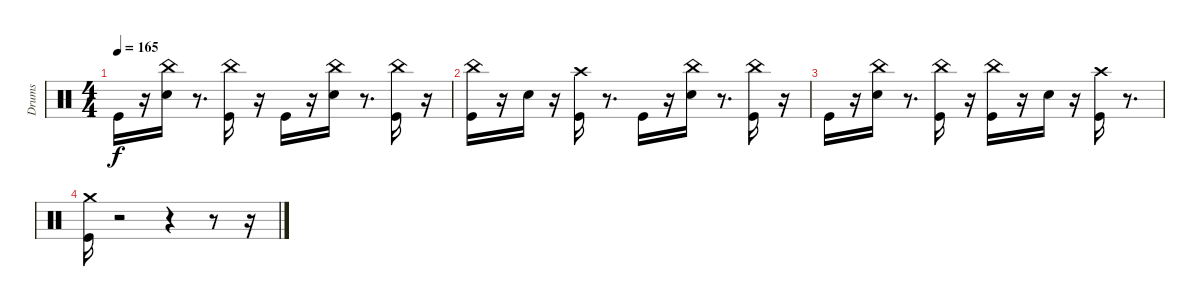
\track ("Drums" "Drums") {instrument percussion}
\staff {score}
\articulation defaults
\ts (4 4)
\tempo 165
\clef neutral
\ks c "Kick (hit)".16{dy f}
r.16 ("Electric Snare (hit)" "China (hit)").16 r.8{d} ("Kick (hit)" "China (hit)").16 r.16 "Kick (hit)".16 r.16 ("Electric Snare (hit)" "China (hit)").16 r.8{d} ("Kick (hit)" "China (hit)").16 r.16 |
("Kick (hit)" "China (hit)").16 r.16 "Electric Snare (hit)".16 r.16 ("Kick (hit)" "Crash high (hit)").16 r.8{d} "Kick (hit)".16 r.16 ("Electric Snare (hit)" "China (hit)").16 r.8{d} ("China (hit)" "Kick (hit)").16 r.16 |
"Kick (hit)".16 r.16 ("China (hit)" "Electric Snare (hit)").16 r.8{d} ("China (hit)" "Kick (hit)").16 r.16 ("China (hit)" "Kick (hit)").16 r.16 "Electric Snare (hit)".16 r.16 ("Crash high (hit)" "Kick (hit)").16 r.8{d} |
("Kick (hit)" "Crash medium (hit)").16 r.2 r.4 r.8 r.16
